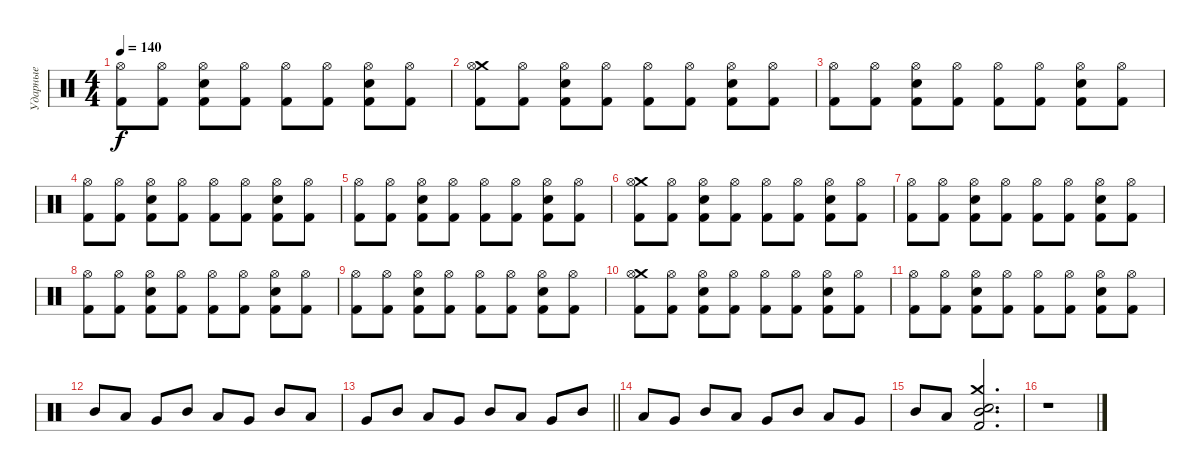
\track ("Ударные" "Ударные") {instrument percussion}
\staff {score}
\articulation defaults
\ts (4 4)
\tempo 140
\clef neutral
\ks c
("Kick (hit) 2" "Hi-Hat (open)").8{dy f} ("Kick (hit) 2" "Hi-Hat (open)").8 ("Kick (hit) 2" "Hi-Hat (open)" "Snare (hit) 2").8 ("Kick (hit) 2" "Hi-Hat (open)").8 ("Kick (hit) 2" "Hi-Hat (open)").8 ("Kick (hit) 2" "Hi-Hat (open)").8 ("Kick (hit) 2" "Hi-Hat (open)" "Snare (hit) 2").8 ("Kick (hit) 2" "Hi-Hat (open)").8 |
("Kick (hit) 2" "Crash medium (hit)" "Hi-Hat (open)").8 ("Kick (hit) 2" "Hi-Hat (open)").8 ("Kick (hit) 2" "Hi-Hat (open)" "Snare (hit) 2").8 ("Kick (hit) 2" "Hi-Hat (open)").8 ("Kick (hit) 2" "Hi-Hat (open)").8 ("Kick (hit) 2" "Hi-Hat (open)").8 ("Kick (hit) 2" "Hi-Hat (open)" "Snare (hit) 2").8 ("Kick (hit) 2" "Hi-Hat (open)").8 |
("Kick (hit) 2" "Hi-Hat (open)").8 ("Kick (hit) 2" "Hi-Hat (open)").8 ("Kick (hit) 2" "Hi-Hat (open)" "Snare (hit) 2").8 ("Kick (hit) 2" "Hi-Hat (open)").8 ("Kick (hit) 2" "Hi-Hat (open)").8 ("Kick (hit) 2" "Hi-Hat (open)").8 ("Kick (hit) 2" "Hi-Hat (open)" "Snare (hit) 2").8 ("Kick (hit) 2" "Hi-Hat (open)").8 |
("Kick (hit) 2" "Hi-Hat (open)").8 ("Kick (hit) 2" "Hi-Hat (open)").8 ("Kick (hit) 2" "Hi-Hat (open)" "Snare (hit) 2").8 ("Kick (hit) 2" "Hi-Hat (open)").8 ("Kick (hit) 2" "Hi-Hat (open)").8 ("Kick (hit) 2" "Hi-Hat (open)").8 ("Kick (hit) 2" "Hi-Hat (open)" "Snare (hit) 2").8 ("Kick (hit) 2" "Hi-Hat (open)").8 |
("Kick (hit) 2" "Hi-Hat (open)").8 ("Kick (hit) 2" "Hi-Hat (open)").8 ("Kick (hit) 2" "Hi-Hat (open)" "Snare (hit) 2").8 ("Kick (hit) 2" "Hi-Hat (open)").8 ("Kick (hit) 2" "Hi-Hat (open)").8 ("Kick (hit) 2" "Hi-Hat (open)").8 ("Kick (hit) 2" "Hi-Hat (open)" "Snare (hit) 2").8 ("Kick (hit) 2" "Hi-Hat (open)").8 |
("Kick (hit) 2" "Crash medium (hit)" "Hi-Hat (open)").8 ("Kick (hit) 2" "Hi-Hat (open)").8 ("Kick (hit) 2" "Hi-Hat (open)" "Snare (hit) 2").8 ("Kick (hit) 2" "Hi-Hat (open)").8 ("Kick (hit) 2" "Hi-Hat (open)").8 ("Kick (hit) 2" "Hi-Hat (open)").8 ("Kick (hit) 2" "Hi-Hat (open)" "Snare (hit) 2").8 ("Kick (hit) 2" "Hi-Hat (open)").8 |
("Kick (hit) 2" "Hi-Hat (open)").8 ("Kick (hit) 2" "Hi-Hat (open)").8 ("Kick (hit) 2" "Hi-Hat (open)" "Snare (hit) 2").8 ("Kick (hit) 2" "Hi-Hat (open)").8 ("Kick (hit) 2" "Hi-Hat (open)").8 ("Kick (hit) 2" "Hi-Hat (open)").8 ("Kick (hit) 2" "Hi-Hat (open)" "Snare (hit) 2").8 ("Kick (hit) 2" "Hi-Hat (open)").8 |
("Kick (hit) 2" "Hi-Hat (open)").8 ("Kick (hit) 2" "Hi-Hat (open)").8 ("Kick (hit) 2" "Hi-Hat (open)" "Snare (hit) 2").8 ("Kick (hit) 2" "Hi-Hat (open)").8 ("Kick (hit) 2" "Hi-Hat (open)").8 ("Kick (hit) 2" "Hi-Hat (open)").8 ("Kick (hit) 2" "Hi-Hat (open)" "Snare (hit) 2").8 ("Kick (hit) 2" "Hi-Hat (open)").8 |
("Kick (hit) 2" "Hi-Hat (open)").8 ("Kick (hit) 2" "Hi-Hat (open)").8 ("Kick (hit) 2" "Hi-Hat (open)" "Snare (hit) 2").8 ("Kick (hit) 2" "Hi-Hat (open)").8 ("Kick (hit) 2" "Hi-Hat (open)").8 ("Kick (hit) 2" "Hi-Hat (open)").8 ("Kick (hit) 2" "Hi-Hat (open)" "Snare (hit) 2").8 ("Kick (hit) 2" "Hi-Hat (open)").8 |
("Kick (hit) 2" "Crash medium (hit)" "Hi-Hat (open)").8 ("Kick (hit) 2" "Hi-Hat (open)").8 ("Kick (hit) 2" "Hi-Hat (open)" "Snare (hit) 2").8 ("Kick (hit) 2" "Hi-Hat (open)").8 ("Kick (hit) 2" "Hi-Hat (open)").8 ("Kick (hit) 2" "Hi-Hat (open)").8 ("Kick (hit) 2" "Hi-Hat (open)" "Snare (hit) 2").8 ("Kick (hit) 2" "Hi-Hat (open)").8 |
("Kick (hit) 2" "Hi-Hat (open)").8 ("Kick (hit) 2" "Hi-Hat (open)").8 ("Kick (hit) 2" "Hi-Hat (open)" "Snare (hit) 2").8 ("Kick (hit) 2" "Hi-Hat (open)").8 ("Kick (hit) 2" "Hi-Hat (open)").8 ("Kick (hit) 2" "Hi-Hat (open)").8 ("Kick (hit) 2" "Hi-Hat (open)" "Snare (hit) 2").8 ("Kick (hit) 2" "Hi-Hat (open)").8 |
"Mid Tom (hit)".8 "Low Tom (hit)".8 "Very Low Tom (hit)".8 "Mid Tom (hit)".8 "Low Tom (hit)".8 "Very Low Tom (hit)".8 "Mid Tom (hit)".8 "Low Tom (hit)".8 |
\barLineRight lightlight "Very Low Tom (hit)".8 "Mid Tom (hit)".8 "Low Tom (hit)".8 "Very Low Tom (hit)".8 "Mid Tom (hit)".8 "Low Tom (hit)".8 "Very Low Tom (hit)".8 "Mid Tom (hit)".8
|
"Low Tom (hit)".8 "Very Low Tom (hit)".8 "Mid Tom (hit)".8 "Low Tom (hit)".8 "Very Low Tom (hit)".8 "Mid Tom (hit)".8 "Low Tom (hit)".8 "Very Low Tom (hit)".8 |
"Mid Tom (hit)".8 "Low Tom (hit)".8 ("Mid Tom (hit)" "Crash medium (hit)" "Kick (hit) 2" "Snare (hit) 2").2{d volume 0} |
r.1
